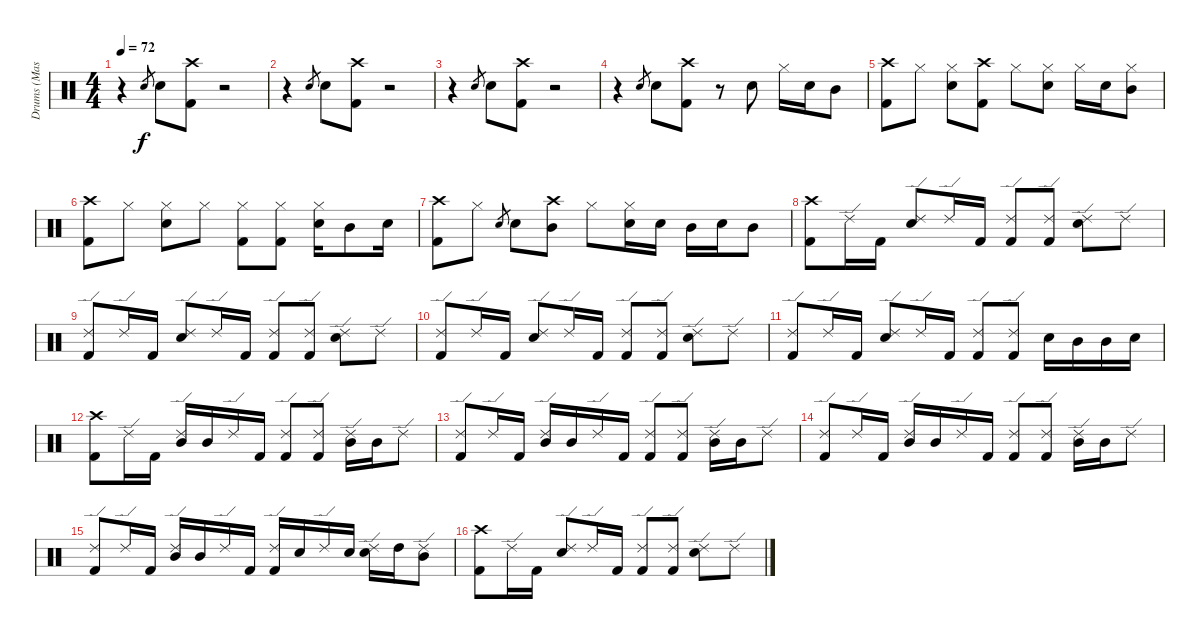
\track ("Drums (Mason)" "Drums (Mas") {instrument percussion}
\staff {score}
\articulation defaults
\ts (4 4)
\tempo 72
\clef neutral
\ks c
r.4{dy f} "Electric Snare (hit)".8{gr} "Electric Snare (hit)".8 ("Crash high (hit)" "Kick (hit) 2").8 r.2 |
r.4 "Electric Snare (hit)".8{gr} "Electric Snare (hit)".8 ("Crash high (hit)" "Kick (hit) 2").8 r.2 |
r.4 "Electric Snare (hit)".8{gr} "Electric Snare (hit)".8 ("Crash high (hit)" "Kick (hit) 2").8 r.2 |
r.4 "Electric Snare (hit)".8{gr} "Electric Snare (hit)".8 ("Crash high (hit)" "Kick (hit) 2").8 r.8 "Electric Snare (hit)".8 "Hi-Hat (closed)".16 "Electric Snare (hit)".16 "Mid Tom (hit)".8 |
("Crash high (hit)" "Kick (hit) 2").8 "Hi-Hat (closed)".8 ("Hi-Hat (closed)" "Electric Snare (hit)").8 ("Crash high (hit)" "Kick (hit) 2").8 "Hi-Hat (closed)".8 ("Hi-Hat (closed)" "Electric Snare (hit)").8 "Hi-Hat (closed)".16 "Electric Snare (hit)".16 ("Hi-Hat (closed)" "Mid Tom (hit)").8 |
("Crash high (hit)" "Kick (hit) 2").8 "Hi-Hat (closed)".8 ("Hi-Hat (closed)" "Electric Snare (hit)").8 "Hi-Hat (closed)".8 ("Hi-Hat (closed)" "Kick (hit) 2").8 ("Hi-Hat (closed)" "Kick (hit) 2").8 ("Hi-Hat (closed)" "Electric Snare (hit)").16 "Mid Tom (hit)".8 "Electric Snare (hit)".16 |
("Crash high (hit)" "Kick (hit) 2").8 "Hi-Hat (closed)".8 "Electric Snare (hit)".8{gr} "Electric Snare (hit)".8 ("Crash high (hit)" "Mid Tom (hit)").8 "Hi-Hat (closed)".8 ("Hi-Hat (closed)" "Electric Snare (hit)").16 "Electric Snare (hit)".16 "Mid Tom (hit)".16 "Electric Snare (hit)".16 "Mid Tom (hit)".8 |
("Crash high (hit)" "Kick (hit) 2").8 "Ride (edge) 2".16 "Kick (hit) 2".16 ("Ride (edge) 2" "Electric Snare (hit)").8 "Ride (edge) 2".16 "Kick (hit) 2".16 ("Ride (edge) 2" "Kick (hit) 2").8 ("Ride (edge) 2" "Kick (hit) 2").8 ("Ride (edge) 2" "Electric Snare (hit)").8 "Ride (edge) 2".8 |
("Ride (edge) 2" "Kick (hit) 2").8 "Ride (edge) 2".16 "Kick (hit) 2".16 ("Ride (edge) 2" "Electric Snare (hit)").8 "Ride (edge) 2".16 "Kick (hit) 2".16 ("Ride (edge) 2" "Kick (hit) 2").8 ("Ride (edge) 2" "Kick (hit) 2").8 ("Ride (edge) 2" "Electric Snare (hit)").8 "Ride (edge) 2".8 |
("Ride (edge) 2" "Kick (hit) 2").8 "Ride (edge) 2".16 "Kick (hit) 2".16 ("Ride (edge) 2" "Electric Snare (hit)").8 "Ride (edge) 2".16 "Kick (hit) 2".16 ("Ride (edge) 2" "Kick (hit) 2").8 ("Ride (edge) 2" "Kick (hit) 2").8 ("Ride (edge) 2" "Electric Snare (hit)").8 "Ride (edge) 2".8 |
("Ride (edge) 2" "Kick (hit) 2").8 "Ride (edge) 2".16 "Kick (hit) 2".16 ("Ride (edge) 2" "Electric Snare (hit)").8 "Ride (edge) 2".16 "Kick (hit) 2".16 ("Ride (edge) 2" "Kick (hit) 2").8 ("Ride (edge) 2" "Kick (hit) 2").8 "Electric Snare (hit)".16 "Mid Tom (hit)".16 "Mid Tom (hit)".16 "Electric Snare (hit)".16 |
("Crash high (hit)" "Kick (hit) 2").8 "Ride (edge) 2".16 "Kick (hit) 2".16 ("Ride (edge) 2" "Mid Tom (hit)").16 "Mid Tom (hit)".16 "Ride (edge) 2".16 "Kick (hit) 2".16 ("Ride (edge) 2" "Kick (hit) 2").8 ("Ride (edge) 2" "Kick (hit) 2").8 ("Ride (edge) 2" "Mid Tom (hit)").16 "Mid Tom (hit)".16 "Ride (edge) 2".8 |
("Ride (edge) 2" "Kick (hit) 2").8 "Ride (edge) 2".16 "Kick (hit) 2".16 ("Ride (edge) 2" "Mid Tom (hit)").16 "Mid Tom (hit)".16 "Ride (edge) 2".16 "Kick (hit) 2".16 ("Ride (edge) 2" "Kick (hit) 2").8 ("Ride (edge) 2" "Kick (hit) 2").8 ("Ride (edge) 2" "Mid Tom (hit)").16 "Mid Tom (hit)".16 "Ride (edge) 2".8 |
("Ride (edge) 2" "Kick (hit) 2").8 "Ride (edge) 2".16 "Kick (hit) 2".16 ("Ride (edge) 2" "Mid Tom (hit)").16 "Mid Tom (hit)".16 "Ride (edge) 2".16 "Kick (hit) 2".16 ("Ride (edge) 2" "Kick (hit) 2").8 ("Ride (edge) 2" "Kick (hit) 2").8 ("Ride (edge) 2" "Mid Tom (hit)").16 "Mid Tom (hit)".16 "Ride (edge) 2".8 |
("Ride (edge) 2" "Kick (hit) 2").8 "Ride (edge) 2".16 "Kick (hit) 2".16 ("Ride (edge) 2" "Mid Tom (hit)").16 "Mid Tom (hit)".16 "Ride (edge) 2".16 "Kick (hit) 2".16 ("Ride (edge) 2" "Kick (hit) 2").16 "Electric Snare (hit)".16 "Ride (edge) 2".16 "Electric Snare (hit)".16 ("Ride (edge) 2" "Electric Snare (hit)").16 "High Tom (hit)".16 ("Ride (edge) 2" "Mid Tom (hit)").8 |
("Crash high (hit)" "Kick (hit) 2").8 "Ride (edge) 2".16 "Kick (hit) 2".16 ("Ride (edge) 2" "Electric Snare (hit)").8 "Ride (edge) 2".16 "Kick (hit) 2".16 ("Ride (edge) 2" "Kick (hit) 2").8 ("Ride (edge) 2" "Kick (hit) 2").8 ("Ride (edge) 2" "Electric Snare (hit)").8 "Ride (edge) 2".8
